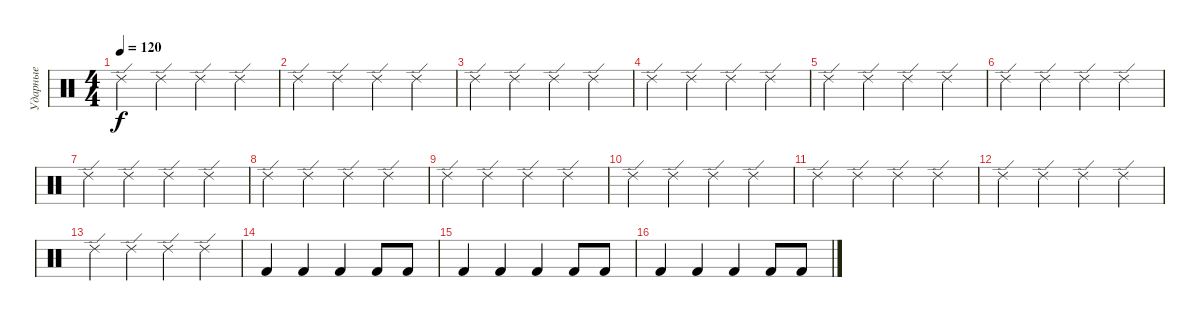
\track ("Ударные" "Ударные") {instrument percussion}
\staff {score}
\articulation defaults
\ts (4 4)
\tempo 120
\clef neutral
\ks c "Ride (edge) 2".4{dy f} "Ride (edge) 2".4 "Ride (edge) 2".4 "Ride (edge) 2".4
|
"Ride (edge) 2".4 "Ride (edge) 2".4 "Ride (edge) 2".4 "Ride (edge) 2".4 |
"Ride (edge) 2".4 "Ride (edge) 2".4 "Ride (edge) 2".4 "Ride (edge) 2".4 |
"Ride (edge) 2".4 "Ride (edge) 2".4 "Ride (edge) 2".4 "Ride (edge) 2".4 |
"Ride (edge) 2".4 "Ride (edge) 2".4 "Ride (edge) 2".4 "Ride (edge) 2".4 |
"Ride (edge) 2".4 "Ride (edge) 2".4 "Ride (edge) 2".4 "Ride (edge) 2".4 |
"Ride (edge) 2".4 "Ride (edge) 2".4 "Ride (edge) 2".4 "Ride (edge) 2".4 |
"Ride (edge) 2".4 "Ride (edge) 2".4 "Ride (edge) 2".4 "Ride (edge) 2".4 |
"Ride (edge) 2".4 "Ride (edge) 2".4 "Ride (edge) 2".4 "Ride (edge) 2".4 |
"Ride (edge) 2".4 "Ride (edge) 2".4 "Ride (edge) 2".4 "Ride (edge) 2".4 |
"Ride (edge) 2".4 "Ride (edge) 2".4 "Ride (edge) 2".4 "Ride (edge) 2".4 |
"Ride (edge) 2".4 "Ride (edge) 2".4 "Ride (edge) 2".4 "Ride (edge) 2".4 |
"Ride (edge) 2".4 "Ride (edge) 2".4 "Ride (edge) 2".4 "Ride (edge) 2".4 |
"Kick (hit) 2".4 "Kick (hit) 2".4 "Kick (hit) 2".4 "Kick (hit) 2".8 "Kick (hit) 2".8 |
"Kick (hit) 2".4 "Kick (hit) 2".4 "Kick (hit) 2".4 "Kick (hit) 2".8 "Kick (hit) 2".8 |
"Kick (hit) 2".4 "Kick (hit) 2".4 "Kick (hit) 2".4 "Kick (hit) 2".8 "Kick (hit) 2".8
